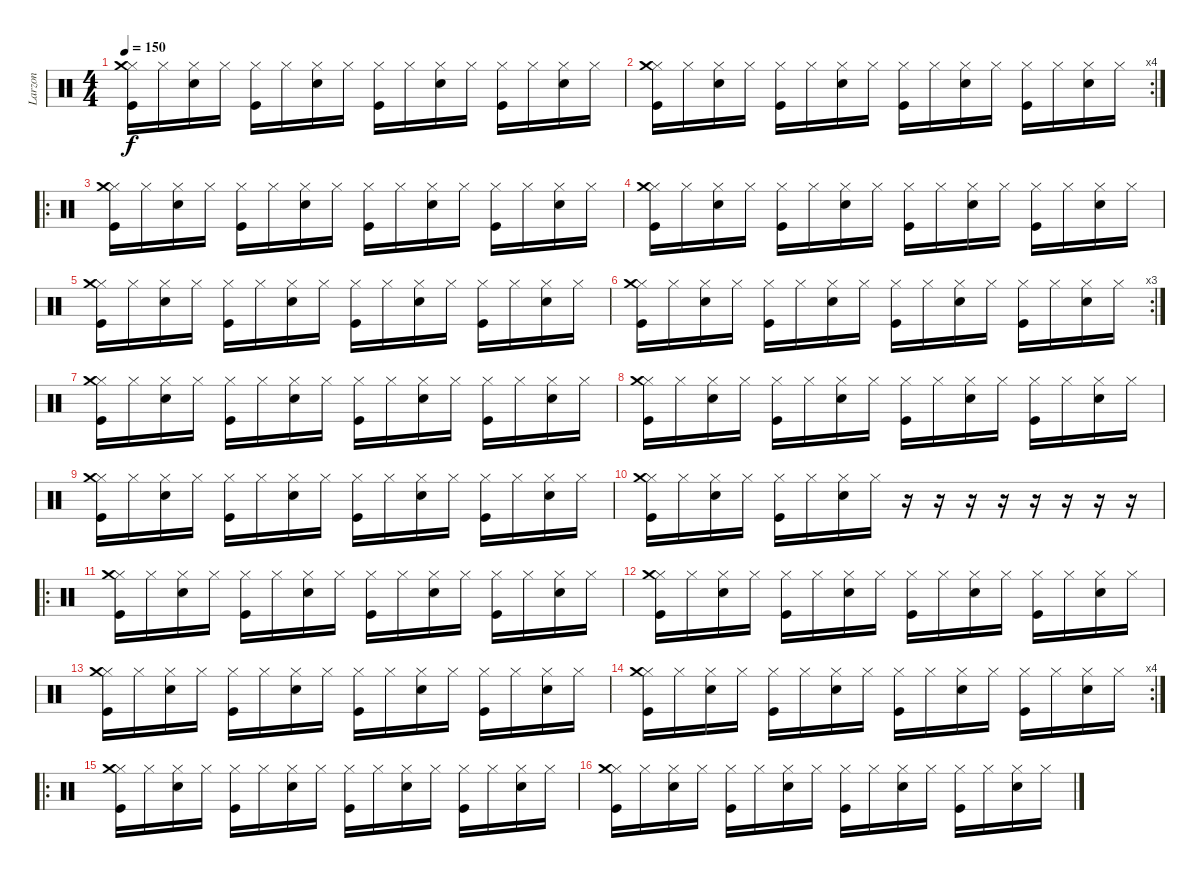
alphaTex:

\track ("Larzon" "Larzon") {instrument percussion}
\staff {score}
\articulation defaults
\ts (4 4)
\tempo 150
\clef neutral
\ks c
("Hi-Hat (closed)" "Crash medium (hit)" "Kick (hit)").16{dy f} "Hi-Hat (closed)".16 ("Hi-Hat (closed)" "Snare (hit) 2").16 "Hi-Hat (closed)".16 ("Hi-Hat (closed)" "Kick (hit)").16 "Hi-Hat (closed)".16 ("Hi-Hat (closed)" "Snare (hit) 2").16 "Hi-Hat (closed)".16 ("Hi-Hat (closed)" "Kick (hit)").16 "Hi-Hat (closed)".16 ("Hi-Hat (closed)" "Snare (hit) 2").16 "Hi-Hat (closed)".16 ("Hi-Hat (closed)" "Kick (hit)").16 "Hi-Hat (closed)".16 ("Hi-Hat (closed)" "Snare (hit) 2").16 "Hi-Hat (closed)".16 |
\rc 4
("Hi-Hat (closed)" "Crash medium (hit)" "Kick (hit)").16 "Hi-Hat (closed)".16 ("Hi-Hat (closed)" "Snare (hit) 2").16 "Hi-Hat (closed)".16 ("Hi-Hat (closed)" "Kick (hit)").16 "Hi-Hat (closed)".16 ("Hi-Hat (closed)" "Snare (hit) 2").16 "Hi-Hat (closed)".16 ("Hi-Hat (closed)" "Kick (hit)").16 "Hi-Hat (closed)".16 ("Hi-Hat (closed)" "Snare (hit) 2").16 "Hi-Hat (closed)".16 ("Hi-Hat (closed)" "Kick (hit)").16 "Hi-Hat (closed)".16 ("Hi-Hat (closed)" "Snare (hit) 2").16 "Hi-Hat (closed)".16 |
\ro
("Hi-Hat (closed)" "Crash medium (hit)" "Kick (hit)").16 "Hi-Hat (closed)".16 ("Hi-Hat (closed)" "Snare (hit) 2").16 "Hi-Hat (closed)".16 ("Hi-Hat (closed)" "Kick (hit)").16 "Hi-Hat (closed)".16 ("Hi-Hat (closed)" "Snare (hit) 2").16 "Hi-Hat (closed)".16 ("Hi-Hat (closed)" "Kick (hit)").16 "Hi-Hat (closed)".16 ("Hi-Hat (closed)" "Snare (hit) 2").16 "Hi-Hat (closed)".16 ("Hi-Hat (closed)" "Kick (hit)").16 "Hi-Hat (closed)".16 ("Hi-Hat (closed)" "Snare (hit) 2").16 "Hi-Hat (closed)".16 |
("Hi-Hat (closed)" "Crash medium (hit)" "Kick (hit)").16 "Hi-Hat (closed)".16 ("Hi-Hat (closed)" "Snare (hit) 2").16 "Hi-Hat (closed)".16 ("Hi-Hat (closed)" "Kick (hit)").16 "Hi-Hat (closed)".16 ("Hi-Hat (closed)" "Snare (hit) 2").16 "Hi-Hat (closed)".16 ("Hi-Hat (closed)" "Kick (hit)").16 "Hi-Hat (closed)".16 ("Hi-Hat (closed)" "Snare (hit) 2").16 "Hi-Hat (closed)".16 ("Hi-Hat (closed)" "Kick (hit)").16 "Hi-Hat (closed)".16 ("Hi-Hat (closed)" "Snare (hit) 2").16 "Hi-Hat (closed)".16 |
("Hi-Hat (closed)" "Crash medium (hit)" "Kick (hit)").16 "Hi-Hat (closed)".16 ("Hi-Hat (closed)" "Snare (hit) 2").16 "Hi-Hat (closed)".16 ("Hi-Hat (closed)" "Kick (hit)").16 "Hi-Hat (closed)".16 ("Hi-Hat (closed)" "Snare (hit) 2").16 "Hi-Hat (closed)".16 ("Hi-Hat (closed)" "Kick (hit)").16 "Hi-Hat (closed)".16 ("Hi-Hat (closed)" "Snare (hit) 2").16 "Hi-Hat (closed)".16 ("Hi-Hat (closed)" "Kick (hit)").16 "Hi-Hat (closed)".16 ("Hi-Hat (closed)" "Snare (hit) 2").16 "Hi-Hat (closed)".16 |
\rc 3
("Hi-Hat (closed)" "Crash medium (hit)" "Kick (hit)").16 "Hi-Hat (closed)".16 ("Hi-Hat (closed)" "Snare (hit) 2").16 "Hi-Hat (closed)".16 ("Hi-Hat (closed)" "Kick (hit)").16 "Hi-Hat (closed)".16 ("Hi-Hat (closed)" "Snare (hit) 2").16 "Hi-Hat (closed)".16 ("Hi-Hat (closed)" "Kick (hit)").16 "Hi-Hat (closed)".16 ("Hi-Hat (closed)" "Snare (hit) 2").16 "Hi-Hat (closed)".16 ("Hi-Hat (closed)" "Kick (hit)").16 "Hi-Hat (closed)".16 ("Hi-Hat (closed)" "Snare (hit) 2").16 "Hi-Hat (closed)".16 |
("Hi-Hat (closed)" "Crash medium (hit)" "Kick (hit)").16 "Hi-Hat (closed)".16 ("Hi-Hat (closed)" "Snare (hit) 2").16 "Hi-Hat (closed)".16 ("Hi-Hat (closed)" "Kick (hit)").16 "Hi-Hat (closed)".16 ("Hi-Hat (closed)" "Snare (hit) 2").16 "Hi-Hat (closed)".16 ("Hi-Hat (closed)" "Kick (hit)").16 "Hi-Hat (closed)".16 ("Hi-Hat (closed)" "Snare (hit) 2").16 "Hi-Hat (closed)".16 ("Hi-Hat (closed)" "Kick (hit)").16 "Hi-Hat (closed)".16 ("Hi-Hat (closed)" "Snare (hit) 2").16 "Hi-Hat (closed)".16 |
("Hi-Hat (closed)" "Crash medium (hit)" "Kick (hit)").16 "Hi-Hat (closed)".16 ("Hi-Hat (closed)" "Snare (hit) 2").16 "Hi-Hat (closed)".16 ("Hi-Hat (closed)" "Kick (hit)").16 "Hi-Hat (closed)".16 ("Hi-Hat (closed)" "Snare (hit) 2").16 "Hi-Hat (closed)".16 ("Hi-Hat (closed)" "Kick (hit)").16 "Hi-Hat (closed)".16 ("Hi-Hat (closed)" "Snare (hit) 2").16 "Hi-Hat (closed)".16 ("Hi-Hat (closed)" "Kick (hit)").16 "Hi-Hat (closed)".16 ("Hi-Hat (closed)" "Snare (hit) 2").16 "Hi-Hat (closed)".16 |
("Hi-Hat (closed)" "Crash medium (hit)" "Kick (hit)").16 "Hi-Hat (closed)".16 ("Hi-Hat (closed)" "Snare (hit) 2").16 "Hi-Hat (closed)".16 ("Hi-Hat (closed)" "Kick (hit)").16 "Hi-Hat (closed)".16 ("Hi-Hat (closed)" "Snare (hit) 2").16 "Hi-Hat (closed)".16 ("Hi-Hat (closed)" "Kick (hit)").16 "Hi-Hat (closed)".16 ("Hi-Hat (closed)" "Snare (hit) 2").16 "Hi-Hat (closed)".16 ("Hi-Hat (closed)" "Kick (hit)").16 "Hi-Hat (closed)".16 ("Hi-Hat (closed)" "Snare (hit) 2").16 "Hi-Hat (closed)".16 |
("Hi-Hat (closed)" "Crash medium (hit)" "Kick (hit)").16 "Hi-Hat (closed)".16 ("Hi-Hat (closed)" "Snare (hit) 2").16 "Hi-Hat (closed)".16 ("Hi-Hat (closed)" "Kick (hit)").16 "Hi-Hat (closed)".16 ("Hi-Hat (closed)" "Snare (hit) 2").16 "Hi-Hat (closed)".16 r.16 r.16 r.16 r.16 r.16 r.16 r.16 r.16 |
\ro
("Hi-Hat (closed)" "Crash medium (hit)" "Kick (hit)").16 "Hi-Hat (closed)".16 ("Hi-Hat (closed)" "Snare (hit) 2").16 "Hi-Hat (closed)".16 ("Hi-Hat (closed)" "Kick (hit)").16 "Hi-Hat (closed)".16 ("Hi-Hat (closed)" "Snare (hit) 2").16 "Hi-Hat (closed)".16 ("Hi-Hat (closed)" "Kick (hit)").16 "Hi-Hat (closed)".16 ("Hi-Hat (closed)" "Snare (hit) 2").16 "Hi-Hat (closed)".16 ("Hi-Hat (closed)" "Kick (hit)").16 "Hi-Hat (closed)".16 ("Hi-Hat (closed)" "Snare (hit) 2").16 "Hi-Hat (closed)".16 |
("Hi-Hat (closed)" "Crash medium (hit)" "Kick (hit)").16 "Hi-Hat (closed)".16 ("Hi-Hat (closed)" "Snare (hit) 2").16 "Hi-Hat (closed)".16 ("Hi-Hat (closed)" "Kick (hit)").16 "Hi-Hat (closed)".16 ("Hi-Hat (closed)" "Snare (hit) 2").16 "Hi-Hat (closed)".16 ("Hi-Hat (closed)" "Kick (hit)").16 "Hi-Hat (closed)".16 ("Hi-Hat (closed)" "Snare (hit) 2").16 "Hi-Hat (closed)".16 ("Hi-Hat (closed)" "Kick (hit)").16 "Hi-Hat (closed)".16 ("Hi-Hat (closed)" "Snare (hit) 2").16 "Hi-Hat (closed)".16 |
("Hi-Hat (closed)" "Crash medium (hit)" "Kick (hit)").16 "Hi-Hat (closed)".16 ("Hi-Hat (closed)" "Snare (hit) 2").16 "Hi-Hat (closed)".16 ("Hi-Hat (closed)" "Kick (hit)").16 "Hi-Hat (closed)".16 ("Hi-Hat (closed)" "Snare (hit) 2").16 "Hi-Hat (closed)".16 ("Hi-Hat (closed)" "Kick (hit)").16 "Hi-Hat (closed)".16 ("Hi-Hat (closed)" "Snare (hit) 2").16 "Hi-Hat (closed)".16 ("Hi-Hat (closed)" "Kick (hit)").16 "Hi-Hat (closed)".16 ("Hi-Hat (closed)" "Snare (hit) 2").16 "Hi-Hat (closed)".16 |
\rc 4
("Hi-Hat (closed)" "Crash medium (hit)" "Kick (hit)").16 "Hi-Hat (closed)".16 ("Hi-Hat (closed)" "Snare (hit) 2").16 "Hi-Hat (closed)".16 ("Hi-Hat (closed)" "Kick (hit)").16 "Hi-Hat (closed)".16 ("Hi-Hat (closed)" "Snare (hit) 2").16 "Hi-Hat (closed)".16 ("Hi-Hat (closed)" "Kick (hit)").16 "Hi-Hat (closed)".16 ("Hi-Hat (closed)" "Snare (hit) 2").16 "Hi-Hat (closed)".16 ("Hi-Hat (closed)" "Kick (hit)").16 "Hi-Hat (closed)".16 ("Hi-Hat (closed)" "Snare (hit) 2").16 "Hi-Hat (closed)".16 |
\ro
("Hi-Hat (closed)" "Crash medium (hit)" "Kick (hit)").16 "Hi-Hat (closed)".16 ("Hi-Hat (closed)" "Snare (hit) 2").16 "Hi-Hat (closed)".16 ("Hi-Hat (closed)" "Kick (hit)").16 "Hi-Hat (closed)".16 ("Hi-Hat (closed)" "Snare (hit) 2").16 "Hi-Hat (closed)".16 ("Hi-Hat (closed)" "Kick (hit)").16 "Hi-Hat (closed)".16 ("Hi-Hat (closed)" "Snare (hit) 2").16 "Hi-Hat (closed)".16 ("Hi-Hat (closed)" "Kick (hit)").16 "Hi-Hat (closed)".16 ("Hi-Hat (closed)" "Snare (hit) 2").16 "Hi-Hat (closed)".16 |
("Hi-Hat (closed)" "Crash medium (hit)" "Kick (hit)").16 "Hi-Hat (closed)".16 ("Hi-Hat (closed)" "Snare (hit) 2").16 "Hi-Hat (closed)".16 ("Hi-Hat (closed)" "Kick (hit)").16 "Hi-Hat (closed)".16 ("Hi-Hat (closed)" "Snare (hit) 2").16 "Hi-Hat (closed)".16 ("Hi-Hat (closed)" "Kick (hit)").16 "Hi-Hat (closed)".16 ("Hi-Hat (closed)" "Snare (hit) 2").16 "Hi-Hat (closed)".16 ("Hi-Hat (closed)" "Kick (hit)").16 "Hi-Hat (closed)".16 ("Hi-Hat (closed)" "Snare (hit) 2").16 "Hi-Hat (closed)".16
